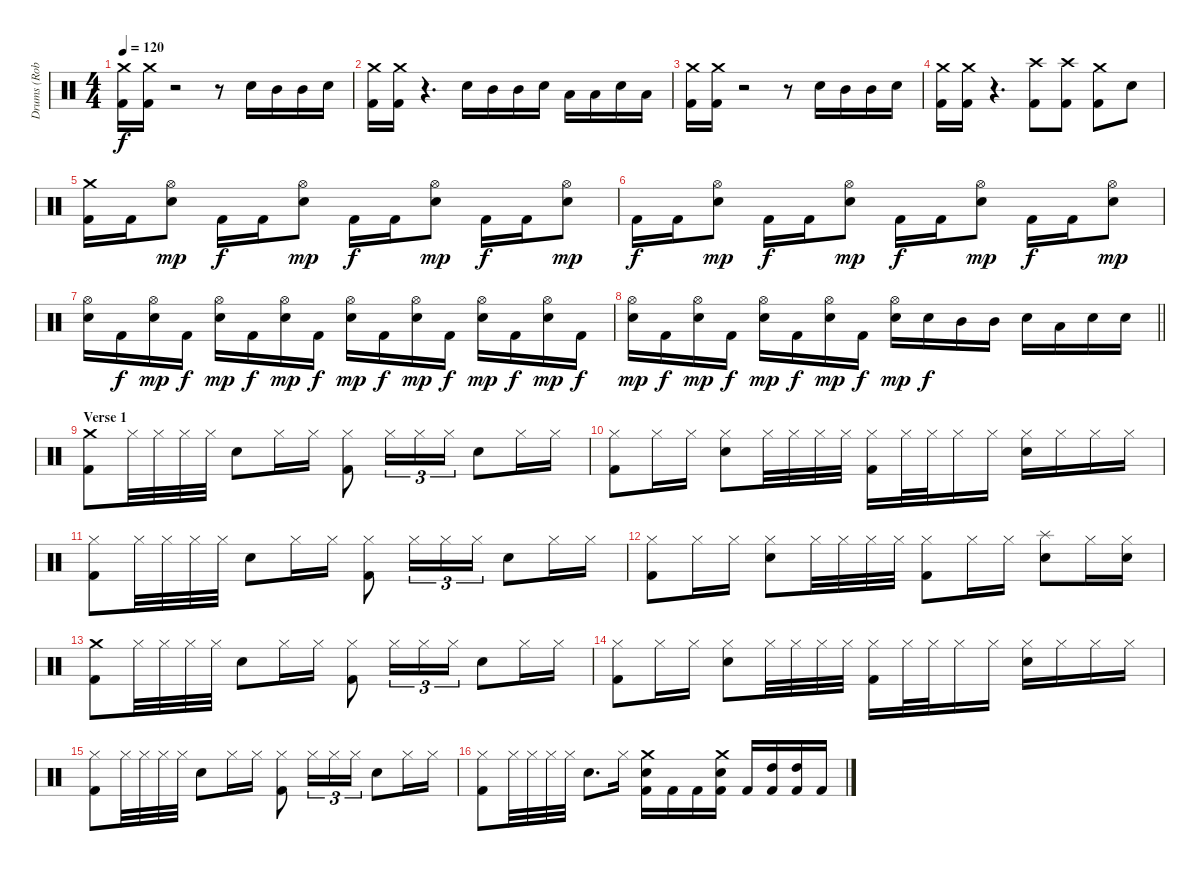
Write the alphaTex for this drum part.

\track ("Drums (Roberto Cappa)" "Drums (Rob") {instrument percussion}
\staff {score}
\articulation defaults
\ts (4 4)
\tempo 120
\clef neutral
\ks c
("Crash medium (hit)" "Kick (hit) 2").16{dy f} ("Crash medium (hit)" "Kick (hit) 2").16 r.2 r.8 "Electric Snare (hit)".16 "Mid Tom (hit)".16 "Mid Tom (hit)".16 "Electric Snare (hit)".16 |
("Crash medium (hit)" "Kick (hit) 2").16 ("Crash medium (hit)" "Kick (hit) 2").16 r.4{d} "Electric Snare (hit)".16 "Mid Tom (hit)".16 "Mid Tom (hit)".16 "Electric Snare (hit)".16 "Low Tom (hit)".16 "Low Tom (hit)".16 "Electric Snare (hit)".16 "Low Tom (hit)".16 |
("Crash medium (hit)" "Kick (hit) 2").16 ("Crash medium (hit)" "Kick (hit) 2").16 r.2 r.8 "Electric Snare (hit)".16 "Mid Tom (hit)".16 "Mid Tom (hit)".16 "Electric Snare (hit)".16 |
("Crash medium (hit)" "Kick (hit) 2").16 ("Crash medium (hit)" "Kick (hit) 2").16 r.4{d} ("Crash high (hit)" "Kick (hit) 2").8 ("Crash high (hit)" "Kick (hit) 2").8 ("Crash medium (hit)" "Kick (hit) 2").8 "Electric Snare (hit)".8 |
("Crash medium (hit)" "Kick (hit) 2").16 "Kick (hit) 2".16 ("Hi-Hat (open)" "Electric Snare (hit)").8{dy mp} "Kick (hit) 2".16{dy f} "Kick (hit) 2".16 ("Hi-Hat (open)" "Electric Snare (hit)").8{dy mp} "Kick (hit) 2".16{dy f} "Kick (hit) 2".16 ("Hi-Hat (open)" "Electric Snare (hit)").8{dy mp} "Kick (hit) 2".16{dy f} "Kick (hit) 2".16 ("Hi-Hat (open)" "Electric Snare (hit)").8{dy mp} |
"Kick (hit) 2".16{dy f} "Kick (hit) 2".16 ("Hi-Hat (open)" "Electric Snare (hit)").8{dy mp} "Kick (hit) 2".16{dy f} "Kick (hit) 2".16 ("Hi-Hat (open)" "Electric Snare (hit)").8{dy mp} "Kick (hit) 2".16{dy f} "Kick (hit) 2".16 ("Hi-Hat (open)" "Electric Snare (hit)").8{dy mp} "Kick (hit) 2".16{dy f} "Kick (hit) 2".16 ("Hi-Hat (open)" "Electric Snare (hit)").8{dy mp} |
("Hi-Hat (open)" "Electric Snare (hit)").16 "Kick (hit) 2".16{dy f} ("Hi-Hat (open)" "Electric Snare (hit)").16{dy mp} "Kick (hit) 2".16{dy f} ("Hi-Hat (open)" "Electric Snare (hit)").16{dy mp} "Kick (hit) 2".16{dy f} ("Hi-Hat (open)" "Electric Snare (hit)").16{dy mp} "Kick (hit) 2".16{dy f} ("Hi-Hat (open)" "Electric Snare (hit)").16{dy mp} "Kick (hit) 2".16{dy f} ("Hi-Hat (open)" "Electric Snare (hit)").16{dy mp} "Kick (hit) 2".16{dy f} ("Hi-Hat (open)" "Electric Snare (hit)").16{dy mp} "Kick (hit) 2".16{dy f} ("Hi-Hat (open)" "Electric Snare (hit)").16{dy mp} "Kick (hit) 2".16{dy f} |
\barLineRight lightlight
("Hi-Hat (open)" "Electric Snare (hit)").16{dy mp} "Kick (hit) 2".16{dy f} ("Hi-Hat (open)" "Electric Snare (hit)").16{dy mp} "Kick (hit) 2".16{dy f} ("Hi-Hat (open)" "Electric Snare (hit)").16{dy mp} "Kick (hit) 2".16{dy f} ("Hi-Hat (open)" "Electric Snare (hit)").16{dy mp} "Kick (hit) 2".16{dy f} ("Hi-Hat (open)" "Electric Snare (hit)").16{dy mp} "Electric Snare (hit)".16{dy f} "Mid Tom (hit)".16 "Mid Tom (hit)".16 "Electric Snare (hit)".16 "Low Tom (hit)".16 "Electric Snare (hit)".16 "Electric Snare (hit)".16 |
\section ("" "Verse 1")
("Crash medium (hit)" "Kick (hit) 2").8 "Hi-Hat (closed)".32 "Hi-Hat (closed)".32 "Hi-Hat (closed)".32 "Hi-Hat (closed)".32 "Electric Snare (hit)".8 "Hi-Hat (closed)".16 "Hi-Hat (closed)".16 ("Hi-Hat (closed)" "Kick (hit) 2").8 "Hi-Hat (closed)".16{tu (3 2)} "Hi-Hat (closed)".16{tu (3 2)} "Hi-Hat (closed)".16{tu (3 2)} "Electric Snare (hit)".8 "Hi-Hat (closed)".16 "Hi-Hat (closed)".16 |
("Hi-Hat (closed)" "Kick (hit) 2").8 "Hi-Hat (closed)".16 "Hi-Hat (closed)".16 ("Hi-Hat (closed)" "Electric Snare (hit)").8 "Hi-Hat (closed)".32 "Hi-Hat (closed)".32 "Hi-Hat (closed)".32 "Hi-Hat (closed)".32 ("Hi-Hat (closed)" "Kick (hit) 2").16 "Hi-Hat (closed)".32 "Hi-Hat (closed)".32 "Hi-Hat (closed)".16 "Hi-Hat (closed)".16 ("Hi-Hat (closed)" "Electric Snare (hit)").16 "Hi-Hat (closed)".16 "Hi-Hat (closed)".16 "Hi-Hat (closed)".16 |
("Hi-Hat (closed)" "Kick (hit) 2").8 "Hi-Hat (closed)".32 "Hi-Hat (closed)".32 "Hi-Hat (closed)".32 "Hi-Hat (closed)".32 "Electric Snare (hit)".8 "Hi-Hat (closed)".16 "Hi-Hat (closed)".16 ("Hi-Hat (closed)" "Kick (hit) 2").8 "Hi-Hat (closed)".16{tu (3 2)} "Hi-Hat (closed)".16{tu (3 2)} "Hi-Hat (closed)".16{tu (3 2)} "Electric Snare (hit)".8 "Hi-Hat (closed)".16 "Hi-Hat (closed)".16 |
("Hi-Hat (closed)" "Kick (hit) 2").8 "Hi-Hat (closed)".16 "Hi-Hat (closed)".16 ("Hi-Hat (closed)" "Electric Snare (hit)").8 "Hi-Hat (closed)".32 "Hi-Hat (closed)".32 "Hi-Hat (closed)".32 "Hi-Hat (closed)".32 ("Hi-Hat (closed)" "Kick (hit) 2").8 "Hi-Hat (closed)".16 "Hi-Hat (closed)".16 ("Splash (hit)" "Electric Snare (hit)").8 "Hi-Hat (closed)".16 ("Hi-Hat (closed)" "Electric Snare (hit)").16 |
("Crash medium (hit)" "Kick (hit) 2").8 "Hi-Hat (closed)".32 "Hi-Hat (closed)".32 "Hi-Hat (closed)".32 "Hi-Hat (closed)".32 "Electric Snare (hit)".8 "Hi-Hat (closed)".16 "Hi-Hat (closed)".16 ("Hi-Hat (closed)" "Kick (hit) 2").8 "Hi-Hat (closed)".16{tu (3 2)} "Hi-Hat (closed)".16{tu (3 2)} "Hi-Hat (closed)".16{tu (3 2)} "Electric Snare (hit)".8 "Hi-Hat (closed)".16 "Hi-Hat (closed)".16 |
("Hi-Hat (closed)" "Kick (hit) 2").8 "Hi-Hat (closed)".16 "Hi-Hat (closed)".16 ("Hi-Hat (closed)" "Electric Snare (hit)").8 "Hi-Hat (closed)".32 "Hi-Hat (closed)".32 "Hi-Hat (closed)".32 "Hi-Hat (closed)".32 ("Hi-Hat (closed)" "Kick (hit) 2").16 "Hi-Hat (closed)".32 "Hi-Hat (closed)".32 "Hi-Hat (closed)".16 "Hi-Hat (closed)".16 ("Hi-Hat (closed)" "Electric Snare (hit)").16 "Hi-Hat (closed)".16 "Hi-Hat (closed)".16 "Hi-Hat (closed)".16 |
("Hi-Hat (closed)" "Kick (hit) 2").8 "Hi-Hat (closed)".32 "Hi-Hat (closed)".32 "Hi-Hat (closed)".32 "Hi-Hat (closed)".32 "Electric Snare (hit)".8 "Hi-Hat (closed)".16 "Hi-Hat (closed)".16 ("Hi-Hat (closed)" "Kick (hit) 2").8 "Hi-Hat (closed)".16{tu (3 2)} "Hi-Hat (closed)".16{tu (3 2)} "Hi-Hat (closed)".16{tu (3 2)} "Electric Snare (hit)".8 "Hi-Hat (closed)".16 "Hi-Hat (closed)".16 |
("Hi-Hat (closed)" "Kick (hit) 2").8 "Hi-Hat (closed)".32 "Hi-Hat (closed)".32 "Hi-Hat (closed)".32 "Hi-Hat (closed)".32 "Electric Snare (hit)".8{d} "Hi-Hat (closed)".16 ("Crash medium (hit)" "Electric Snare (hit)" "Kick (hit) 2").16 "Kick (hit) 2".16 "Kick (hit) 2".16 ("Crash medium (hit)" "Electric Snare (hit)" "Kick (hit) 2").16 "Kick (hit) 2".16 ("High Tom (hit)" "Kick (hit) 2").16 ("High Tom (hit)" "Kick (hit) 2").16 "Kick (hit) 2".16
